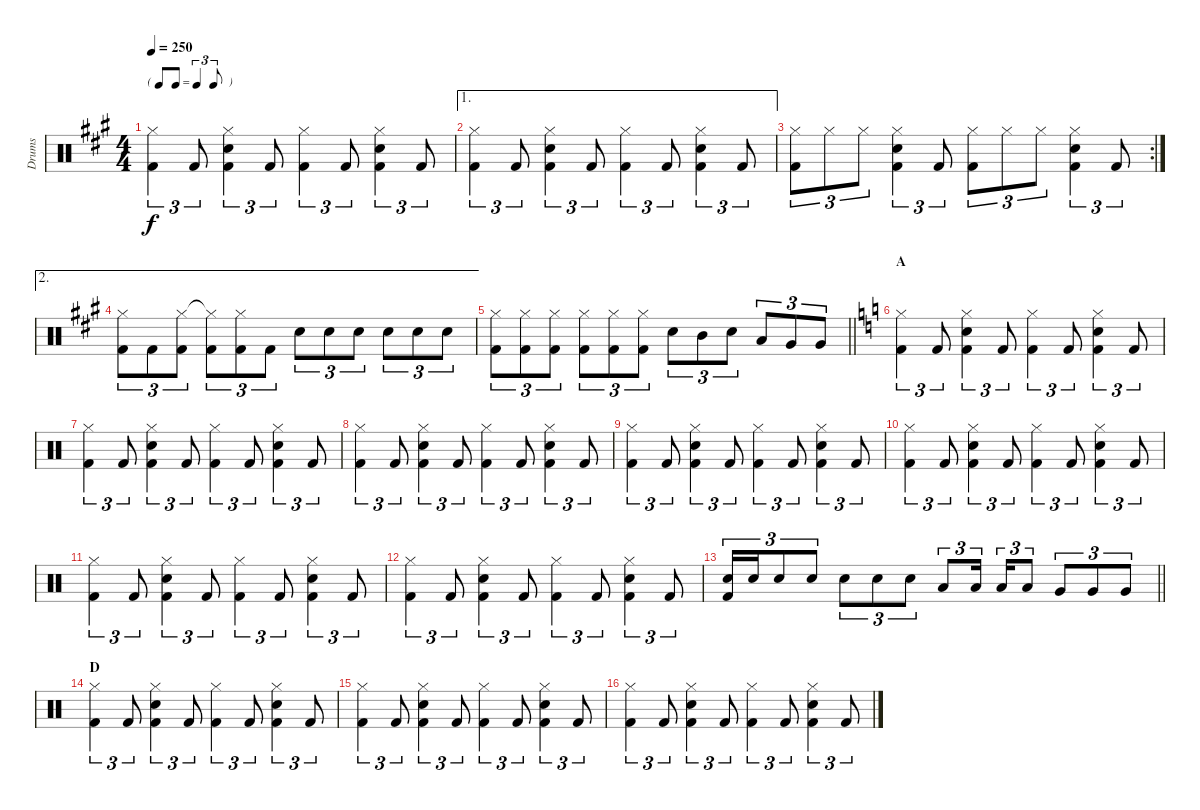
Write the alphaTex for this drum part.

\track ("Drums" "Drums") {instrument percussion}
\staff {score}
\articulation defaults
\ts (4 4)
\tf triplet8th
\tempo 250
\clef neutral
\ks f#minor
("Hi-Hat (closed)" "Kick (hit) 2").4{tu (3 2) dy f} "Kick (hit) 2".8{tu (3 2)} ("Hi-Hat (closed)" "Electric Snare (hit)" "Kick (hit) 2").4{tu (3 2)} "Kick (hit) 2".8{tu (3 2)} ("Hi-Hat (closed)" "Kick (hit) 2").4{tu (3 2)} "Kick (hit) 2".8{tu (3 2)} ("Hi-Hat (closed)" "Electric Snare (hit)" "Kick (hit) 2").4{tu (3 2)} "Kick (hit) 2".8{tu (3 2)} |
\ae 1
("Hi-Hat (closed)" "Kick (hit) 2").4{tu (3 2)} "Kick (hit) 2".8{tu (3 2)} ("Hi-Hat (closed)" "Electric Snare (hit)" "Kick (hit) 2").4{tu (3 2)} "Kick (hit) 2".8{tu (3 2)} ("Hi-Hat (closed)" "Kick (hit) 2").4{tu (3 2)} "Kick (hit) 2".8{tu (3 2)} ("Hi-Hat (closed)" "Electric Snare (hit)" "Kick (hit) 2").4{tu (3 2)} "Kick (hit) 2".8{tu (3 2)} |
\rc 2
("Hi-Hat (closed)" "Kick (hit) 2").8{tu (3 2)} "Hi-Hat (closed)".8{tu (3 2)} "Hi-Hat (closed)".8{tu (3 2)} ("Hi-Hat (closed)" "Electric Snare (hit)" "Kick (hit) 2").4{tu (3 2)} "Kick (hit) 2".8{tu (3 2)} ("Hi-Hat (closed)" "Kick (hit) 2").8{tu (3 2)} "Hi-Hat (closed)".8{tu (3 2)} "Hi-Hat (closed)".8{tu (3 2)} ("Hi-Hat (closed)" "Electric Snare (hit)" "Kick (hit) 2").4{tu (3 2)} "Kick (hit) 2".8{tu (3 2)} |
\ae 2
("Hi-Hat (closed)" "Kick (hit) 2").8{tu (3 2)} "Kick (hit) 2".8{tu (3 2)} ("Hi-Hat (closed)" "Kick (hit) 2").8{tu (3 2)} ("Hi-Hat (closed)"{t} "Kick (hit) 2").8{tu (3 2)} ("Hi-Hat (closed)" "Kick (hit) 2").8{tu (3 2)} "Kick (hit) 2".8{tu (3 2)} "Electric Snare (hit)".8{tu (3 2)} "Electric Snare (hit)".8{tu (3 2)} "Electric Snare (hit)".8{tu (3 2)} "Electric Snare (hit)".8{tu (3 2)} "Electric Snare (hit)".8{tu (3 2)} "Electric Snare (hit)".8{tu (3 2)} |
\barLineRight lightlight
("Hi-Hat (closed)" "Kick (hit) 2").8{tu (3 2)} ("Hi-Hat (closed)" "Kick (hit) 2").8{tu (3 2)} ("Hi-Hat (closed)" "Kick (hit) 2").8{tu (3 2)} ("Hi-Hat (closed)" "Kick (hit) 2").8{tu (3 2)} ("Hi-Hat (closed)" "Kick (hit) 2").8{tu (3 2)} ("Hi-Hat (closed)" "Kick (hit) 2").8{tu (3 2)} "Electric Snare (hit)".8{tu (3 2)} "Mid Tom (hit)".8{tu (3 2)} "Electric Snare (hit)".8{tu (3 2)} "Low Tom (hit)".8{tu (3 2)} "Very Low Tom (hit)".8{tu (3 2)} "Very Low Tom (hit)".8{tu (3 2)} |
\section ("" "A")
\ks aminor
("Hi-Hat (closed)" "Kick (hit) 2").4{tu (3 2)} "Kick (hit) 2".8{tu (3 2)} ("Hi-Hat (closed)" "Electric Snare (hit)" "Kick (hit) 2").4{tu (3 2)} "Kick (hit) 2".8{tu (3 2)} ("Hi-Hat (closed)" "Kick (hit) 2").4{tu (3 2)} "Kick (hit) 2".8{tu (3 2)} ("Hi-Hat (closed)" "Electric Snare (hit)" "Kick (hit) 2").4{tu (3 2)} "Kick (hit) 2".8{tu (3 2)} |
("Hi-Hat (closed)" "Kick (hit) 2").4{tu (3 2)} "Kick (hit) 2".8{tu (3 2)} ("Hi-Hat (closed)" "Electric Snare (hit)" "Kick (hit) 2").4{tu (3 2)} "Kick (hit) 2".8{tu (3 2)} ("Hi-Hat (closed)" "Kick (hit) 2").4{tu (3 2)} "Kick (hit) 2".8{tu (3 2)} ("Hi-Hat (closed)" "Electric Snare (hit)" "Kick (hit) 2").4{tu (3 2)} "Kick (hit) 2".8{tu (3 2)} |
("Hi-Hat (closed)" "Kick (hit) 2").4{tu (3 2)} "Kick (hit) 2".8{tu (3 2)} ("Hi-Hat (closed)" "Electric Snare (hit)" "Kick (hit) 2").4{tu (3 2)} "Kick (hit) 2".8{tu (3 2)} ("Hi-Hat (closed)" "Kick (hit) 2").4{tu (3 2)} "Kick (hit) 2".8{tu (3 2)} ("Hi-Hat (closed)" "Electric Snare (hit)" "Kick (hit) 2").4{tu (3 2)} "Kick (hit) 2".8{tu (3 2)} |
("Hi-Hat (closed)" "Kick (hit) 2").4{tu (3 2)} "Kick (hit) 2".8{tu (3 2)} ("Hi-Hat (closed)" "Electric Snare (hit)" "Kick (hit) 2").4{tu (3 2)} "Kick (hit) 2".8{tu (3 2)} ("Hi-Hat (closed)" "Kick (hit) 2").4{tu (3 2)} "Kick (hit) 2".8{tu (3 2)} ("Hi-Hat (closed)" "Electric Snare (hit)" "Kick (hit) 2").4{tu (3 2)} "Kick (hit) 2".8{tu (3 2)} |
("Hi-Hat (closed)" "Kick (hit) 2").4{tu (3 2)} "Kick (hit) 2".8{tu (3 2)} ("Hi-Hat (closed)" "Electric Snare (hit)" "Kick (hit) 2").4{tu (3 2)} "Kick (hit) 2".8{tu (3 2)} ("Hi-Hat (closed)" "Kick (hit) 2").4{tu (3 2)} "Kick (hit) 2".8{tu (3 2)} ("Hi-Hat (closed)" "Electric Snare (hit)" "Kick (hit) 2").4{tu (3 2)} "Kick (hit) 2".8{tu (3 2)} |
("Hi-Hat (closed)" "Kick (hit) 2").4{tu (3 2)} "Kick (hit) 2".8{tu (3 2)} ("Hi-Hat (closed)" "Electric Snare (hit)" "Kick (hit) 2").4{tu (3 2)} "Kick (hit) 2".8{tu (3 2)} ("Hi-Hat (closed)" "Kick (hit) 2").4{tu (3 2)} "Kick (hit) 2".8{tu (3 2)} ("Hi-Hat (closed)" "Electric Snare (hit)" "Kick (hit) 2").4{tu (3 2)} "Kick (hit) 2".8{tu (3 2)} |
("Hi-Hat (closed)" "Kick (hit) 2").4{tu (3 2)} "Kick (hit) 2".8{tu (3 2)} ("Hi-Hat (closed)" "Electric Snare (hit)" "Kick (hit) 2").4{tu (3 2)} "Kick (hit) 2".8{tu (3 2)} ("Hi-Hat (closed)" "Kick (hit) 2").4{tu (3 2)} "Kick (hit) 2".8{tu (3 2)} ("Hi-Hat (closed)" "Electric Snare (hit)" "Kick (hit) 2").4{tu (3 2)} "Kick (hit) 2".8{tu (3 2)} |
\barLineRight lightlight
("Electric Snare (hit)" "Kick (hit) 2").16{tu (3 2)} "Electric Snare (hit)".16{tu (3 2)} "Electric Snare (hit)".8{tu (3 2)} "Electric Snare (hit)".8{tu (3 2)} "Electric Snare (hit)".8{tu (3 2)} "Electric Snare (hit)".8{tu (3 2)} "Electric Snare (hit)".8{tu (3 2)} "Low Tom (hit)".8{tu (3 2)} "Low Tom (hit)".16{tu (3 2)} "Low Tom (hit)".16{tu (3 2)} "Low Tom (hit)".8{tu (3 2)} "Very Low Tom (hit)".8{tu (3 2)} "Very Low Tom (hit)".8{tu (3 2)} "Very Low Tom (hit)".8{tu (3 2)} |
\section ("" "D")
("Hi-Hat (closed)" "Kick (hit) 2").4{tu (3 2)} "Kick (hit) 2".8{tu (3 2)} ("Hi-Hat (closed)" "Electric Snare (hit)" "Kick (hit) 2").4{tu (3 2)} "Kick (hit) 2".8{tu (3 2)} ("Hi-Hat (closed)" "Kick (hit) 2").4{tu (3 2)} "Kick (hit) 2".8{tu (3 2)} ("Hi-Hat (closed)" "Electric Snare (hit)" "Kick (hit) 2").4{tu (3 2)} "Kick (hit) 2".8{tu (3 2)} |
("Hi-Hat (closed)" "Kick (hit) 2").4{tu (3 2)} "Kick (hit) 2".8{tu (3 2)} ("Hi-Hat (closed)" "Electric Snare (hit)" "Kick (hit) 2").4{tu (3 2)} "Kick (hit) 2".8{tu (3 2)} ("Hi-Hat (closed)" "Kick (hit) 2").4{tu (3 2)} "Kick (hit) 2".8{tu (3 2)} ("Hi-Hat (closed)" "Electric Snare (hit)" "Kick (hit) 2").4{tu (3 2)} "Kick (hit) 2".8{tu (3 2)} |
("Hi-Hat (closed)" "Kick (hit) 2").4{tu (3 2)} "Kick (hit) 2".8{tu (3 2)} ("Hi-Hat (closed)" "Electric Snare (hit)" "Kick (hit) 2").4{tu (3 2)} "Kick (hit) 2".8{tu (3 2)} ("Hi-Hat (closed)" "Kick (hit) 2").4{tu (3 2)} "Kick (hit) 2".8{tu (3 2)} ("Hi-Hat (closed)" "Electric Snare (hit)" "Kick (hit) 2").4{tu (3 2)} "Kick (hit) 2".8{tu (3 2)}
